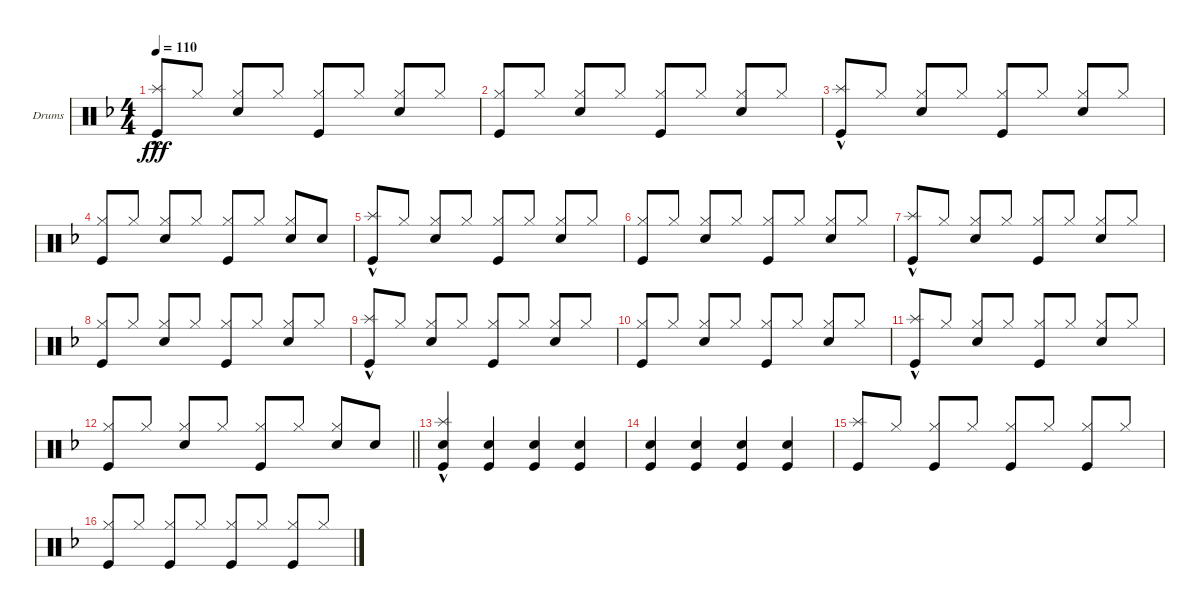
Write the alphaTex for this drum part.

\defaultSystemsLayout 4
\bracketExtendMode groupsimilarinstruments
\firstSystemTrackNameOrientation horizontal
\otherSystemsTrackNameOrientation horizontal
\track ("Drumkit" "Drums") {instrument percussion}
\staff {score}
\articulation defaults
\ts (4 4)
\tempo 110
\clef neutral
\ks f
("Kick (hit)" "Splash (hit)"{hac}).8{dy fff} "Hi-Hat (closed)".8 ("Hi-Hat (closed)" "Snare (hit) 2").8{beam invert} "Hi-Hat (closed)".8 ("Hi-Hat (closed)" "Kick (hit)").8{beam invert} "Hi-Hat (closed)".8 ("Hi-Hat (closed)" "Snare (hit) 2").8{beam invert} "Hi-Hat (closed)".8 |
("Hi-Hat (closed)" "Kick (hit)").8{beam invert} "Hi-Hat (closed)".8 ("Hi-Hat (closed)" "Snare (hit) 2").8{beam invert} "Hi-Hat (closed)".8 ("Hi-Hat (closed)" "Kick (hit)").8{beam invert} "Hi-Hat (closed)".8 ("Hi-Hat (closed)" "Snare (hit) 2").8{beam invert} "Hi-Hat (closed)".8 |
("Kick (hit)" "Splash (hit)"{hac}).8 "Hi-Hat (closed)".8 ("Hi-Hat (closed)" "Snare (hit) 2").8{beam invert} "Hi-Hat (closed)".8 ("Hi-Hat (closed)" "Kick (hit)").8{beam invert} "Hi-Hat (closed)".8 ("Hi-Hat (closed)" "Snare (hit) 2").8{beam invert} "Hi-Hat (closed)".8 |
("Hi-Hat (closed)" "Kick (hit)").8{beam invert} "Hi-Hat (closed)".8 ("Hi-Hat (closed)" "Snare (hit) 2").8{beam invert} "Hi-Hat (closed)".8 ("Hi-Hat (closed)" "Kick (hit)").8{beam invert} "Hi-Hat (closed)".8 ("Hi-Hat (closed)" "Snare (hit) 2").8{beam invert} "Snare (hit) 2".8 |
("Kick (hit)" "Splash (hit)"{hac}).8 "Hi-Hat (closed)".8 ("Hi-Hat (closed)" "Snare (hit) 2").8{beam invert} "Hi-Hat (closed)".8 ("Hi-Hat (closed)" "Kick (hit)").8{beam invert} "Hi-Hat (closed)".8 ("Hi-Hat (closed)" "Snare (hit) 2").8{beam invert} "Hi-Hat (closed)".8 |
("Hi-Hat (closed)" "Kick (hit)").8{beam invert} "Hi-Hat (closed)".8 ("Hi-Hat (closed)" "Snare (hit) 2").8{beam invert} "Hi-Hat (closed)".8 ("Hi-Hat (closed)" "Kick (hit)").8{beam invert} "Hi-Hat (closed)".8 ("Hi-Hat (closed)" "Snare (hit) 2").8{beam invert} "Hi-Hat (closed)".8 |
("Kick (hit)" "Splash (hit)"{hac}).8 "Hi-Hat (closed)".8 ("Hi-Hat (closed)" "Snare (hit) 2").8{beam invert} "Hi-Hat (closed)".8 ("Hi-Hat (closed)" "Kick (hit)").8{beam invert} "Hi-Hat (closed)".8 ("Hi-Hat (closed)" "Snare (hit) 2").8{beam invert} "Hi-Hat (closed)".8 |
("Hi-Hat (closed)" "Kick (hit)").8{beam invert} "Hi-Hat (closed)".8 ("Hi-Hat (closed)" "Snare (hit) 2").8{beam invert} "Hi-Hat (closed)".8 ("Hi-Hat (closed)" "Kick (hit)").8{beam invert} "Hi-Hat (closed)".8 ("Hi-Hat (closed)" "Snare (hit) 2").8{beam invert} "Hi-Hat (closed)".8 |
("Kick (hit)" "Splash (hit)"{hac}).8 "Hi-Hat (closed)".8 ("Hi-Hat (closed)" "Snare (hit) 2").8{beam invert} "Hi-Hat (closed)".8 ("Hi-Hat (closed)" "Kick (hit)").8{beam invert} "Hi-Hat (closed)".8 ("Hi-Hat (closed)" "Snare (hit) 2").8{beam invert} "Hi-Hat (closed)".8 |
("Hi-Hat (closed)" "Kick (hit)").8{beam invert} "Hi-Hat (closed)".8 ("Hi-Hat (closed)" "Snare (hit) 2").8{beam invert} "Hi-Hat (closed)".8 ("Hi-Hat (closed)" "Kick (hit)").8{beam invert} "Hi-Hat (closed)".8 ("Hi-Hat (closed)" "Snare (hit) 2").8{beam invert} "Hi-Hat (closed)".8 |
("Kick (hit)" "Splash (hit)"{hac}).8 "Hi-Hat (closed)".8 ("Hi-Hat (closed)" "Snare (hit) 2").8{beam invert} "Hi-Hat (closed)".8 ("Hi-Hat (closed)" "Kick (hit)").8{beam invert} "Hi-Hat (closed)".8 ("Hi-Hat (closed)" "Snare (hit) 2").8{beam invert} "Hi-Hat (closed)".8 |
\barLineRight lightlight
("Hi-Hat (closed)" "Kick (hit)").8{beam invert} "Hi-Hat (closed)".8 ("Hi-Hat (closed)" "Snare (hit) 2").8{beam invert} "Hi-Hat (closed)".8 ("Hi-Hat (closed)" "Kick (hit)").8{beam invert} "Hi-Hat (closed)".8 ("Hi-Hat (closed)" "Snare (hit) 2").8{beam invert} "Snare (hit) 2".8 |
("Snare (hit) 2" "Splash (hit)"{hac} "Kick (hit)").4 ("Snare (hit) 2" "Kick (hit)").4 ("Snare (hit) 2" "Kick (hit)").4 ("Snare (hit) 2" "Kick (hit)").4 |
("Snare (hit) 2" "Kick (hit)").4 ("Snare (hit) 2" "Kick (hit)").4 ("Snare (hit) 2" "Kick (hit)").4 ("Snare (hit) 2" "Kick (hit)").4 |
("Kick (hit)" "Splash (hit)").8 "Hi-Hat (closed)".8 ("Hi-Hat (closed)" "Kick (hit)").8{beam invert} "Hi-Hat (closed)".8 ("Hi-Hat (closed)" "Kick (hit)").8{beam invert} "Hi-Hat (closed)".8 ("Hi-Hat (closed)" "Kick (hit)").8{beam invert} "Hi-Hat (closed)".8 |
("Hi-Hat (closed)" "Kick (hit)").8{beam invert} "Hi-Hat (closed)".8 ("Hi-Hat (closed)" "Kick (hit)").8{beam invert} "Hi-Hat (closed)".8 ("Hi-Hat (closed)" "Kick (hit)").8{beam invert} "Hi-Hat (closed)".8 ("Hi-Hat (closed)" "Kick (hit)").8{beam invert} "Hi-Hat (closed)".8
